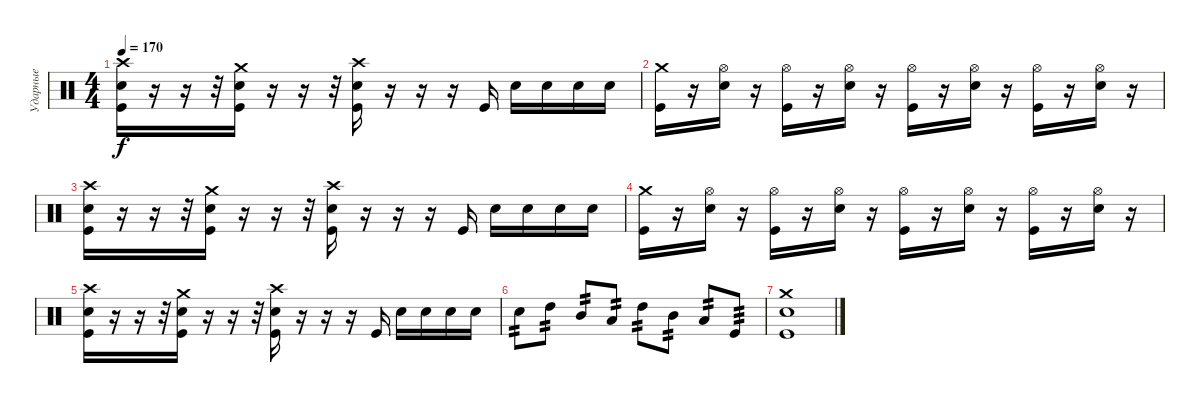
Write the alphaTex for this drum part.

\track ("Ударные" "Ударные") {instrument percussion}
\staff {score}
\articulation defaults
\ts (4 4)
\tempo 170
\clef neutral
\ks c
("Crash high (hit)" "Electric Snare (hit)" "Kick (hit)").16{dy f} r.16 r.16 r.32 ("Crash medium (hit)" "Electric Snare (hit)" "Kick (hit)").16 r.16 r.16 r.32 ("Crash high (hit)" "Electric Snare (hit)" "Kick (hit)").16 r.16 r.16 r.16 "Kick (hit)".16 "Electric Snare (hit)".16 "Electric Snare (hit)".16 "Electric Snare (hit)".16 "Electric Snare (hit)".16 |
("Crash medium (hit)" "Kick (hit)").16 r.16 ("Hi-Hat (open)" "Electric Snare (hit)").16 r.16 ("Hi-Hat (open)" "Kick (hit)").16 r.16 ("Hi-Hat (open)" "Electric Snare (hit)").16 r.16 ("Hi-Hat (open)" "Kick (hit)").16 r.16 ("Hi-Hat (open)" "Electric Snare (hit)").16 r.16 ("Hi-Hat (open)" "Kick (hit)").16 r.16 ("Hi-Hat (open)" "Electric Snare (hit)").16 r.16 |
("Crash high (hit)" "Electric Snare (hit)" "Kick (hit)").16 r.16 r.16 r.32 ("Crash medium (hit)" "Electric Snare (hit)" "Kick (hit)").16 r.16 r.16 r.32 ("Crash high (hit)" "Electric Snare (hit)" "Kick (hit)").16 r.16 r.16 r.16 "Kick (hit)".16 "Electric Snare (hit)".16 "Electric Snare (hit)".16 "Electric Snare (hit)".16 "Electric Snare (hit)".16 |
("Crash medium (hit)" "Kick (hit)").16 r.16 ("Hi-Hat (open)" "Electric Snare (hit)").16 r.16 ("Hi-Hat (open)" "Kick (hit)").16 r.16 ("Hi-Hat (open)" "Electric Snare (hit)").16 r.16 ("Hi-Hat (open)" "Kick (hit)").16 r.16 ("Hi-Hat (open)" "Electric Snare (hit)").16 r.16 ("Hi-Hat (open)" "Kick (hit)").16 r.16 ("Hi-Hat (open)" "Electric Snare (hit)").16 r.16 |
("Crash high (hit)" "Electric Snare (hit)" "Kick (hit)").16 r.16 r.16 r.32 ("Crash medium (hit)" "Electric Snare (hit)" "Kick (hit)").16 r.16 r.16 r.32 ("Crash high (hit)" "Electric Snare (hit)" "Kick (hit)").16 r.16 r.16 r.16 "Kick (hit)".16 "Electric Snare (hit)".16 "Electric Snare (hit)".16 "Electric Snare (hit)".16 "Electric Snare (hit)".16 |
"Electric Snare (hit)".8{tp 2} "High Tom (hit)".8{tp 2} "Mid Tom (hit)".8{tp 2} "Low Tom (hit)".8{tp 2} "High Tom (hit)".8{tp 2} "Mid Tom (hit)".8{tp 2} "Low Tom (hit)".8{tp 2} "Kick (hit)".8{tp 3} |
("Crash medium (hit)" "Electric Snare (hit)" "Kick (hit)").1
